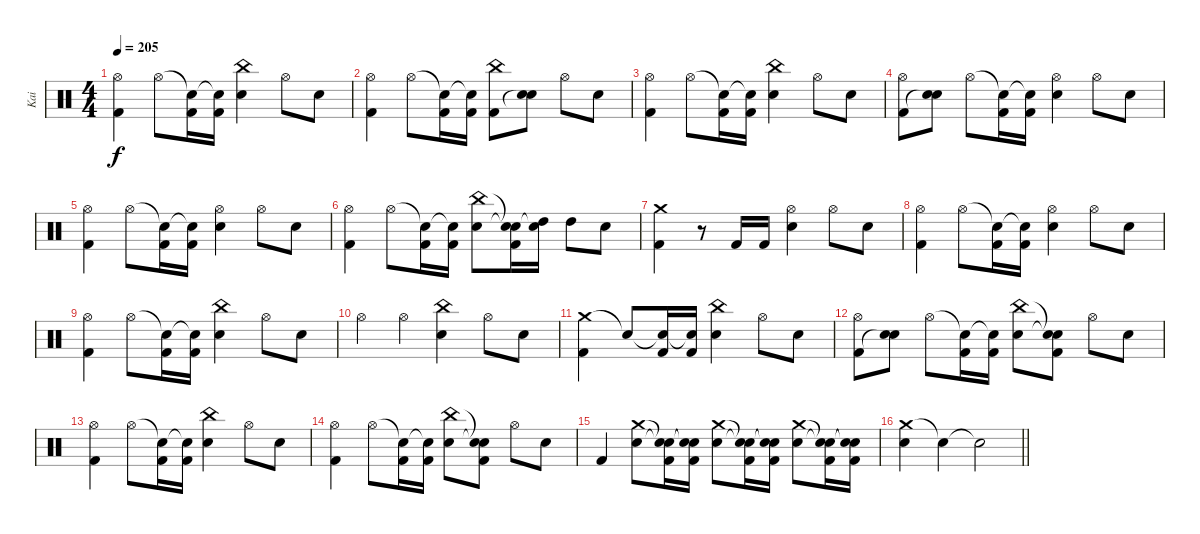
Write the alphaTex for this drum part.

\track ("Kai" "Kai") {instrument percussion}
\staff {score}
\articulation defaults
\ts (4 4)
\tempo 205
\clef neutral
\ks c
("Hi-Hat (open)" "Kick (hit) 2").4{dy f} "Hi-Hat (open)".8 ("Snare (hit)"{t} "Kick (hit) 2").16 ("Snare (hit)"{t} "Kick (hit) 2").16 ("China (hit)" "Snare (hit) 2").4 "Hi-Hat (open)".8 "Snare (hit) 2".8 |
("Hi-Hat (open)" "Kick (hit) 2").4 "Hi-Hat (open)".8 ("Snare (hit)"{t} "Kick (hit) 2").16 ("Snare (hit)"{t} "Kick (hit) 2").16 ("China (hit)" "Kick (hit) 2").8 ("Snare (hit) 2" "Snare (hit)"{t}).8 "Hi-Hat (open)".8 "Snare (hit) 2".8 |
("Hi-Hat (open)" "Kick (hit) 2").4 "Hi-Hat (open)".8 ("Snare (hit)"{t} "Kick (hit) 2").16 ("Snare (hit)"{t} "Kick (hit) 2").16 ("China (hit)" "Snare (hit) 2").4 "Hi-Hat (open)".8 "Snare (hit) 2".8 |
("Hi-Hat (open)" "Kick (hit) 2").8 ("Snare (hit) 2" "Snare (hit)"{t}).8 "Hi-Hat (open)".8 ("Snare (hit)"{t} "Kick (hit) 2").16 ("Snare (hit)"{t} "Kick (hit) 2").16 ("Hi-Hat (open)" "Snare (hit) 2").4 "Hi-Hat (open)".8 "Snare (hit) 2".8 |
("Hi-Hat (open)" "Kick (hit) 2").4 "Hi-Hat (open)".8 ("Snare (hit)"{t} "Kick (hit) 2").16 ("Snare (hit)"{t} "Kick (hit) 2").16 ("Hi-Hat (open)" "Snare (hit) 2").4 "Hi-Hat (open)".8 "Snare (hit) 2".8 |
("Hi-Hat (open)" "Kick (hit) 2").4 "Hi-Hat (open)".8 ("Snare (hit)"{t} "Kick (hit) 2").16 ("Snare (hit)"{t} "Kick (hit) 2").16 ("China (hit)" "Snare (hit) 2").8 ("Snare (hit)"{t} "Snare (hit)"{t} "Kick (hit) 2").16 ("High Tom (hit)" "Snare (hit)"{t}).16 "High Tom (hit)".8 "Snare (hit) 2".8 |
("Crash medium (hit)" "Kick (hit) 2").4 r.8 "Kick (hit) 2".16 "Kick (hit) 2".16 ("Hi-Hat (open)" "Snare (hit) 2").4 "Hi-Hat (open)".8 "Snare (hit) 2".8 |
("Hi-Hat (open)" "Kick (hit) 2").4 "Hi-Hat (open)".8 ("Snare (hit)"{t} "Kick (hit) 2").16 ("Snare (hit)"{t} "Kick (hit) 2").16 ("Hi-Hat (open)" "Snare (hit) 2").4 "Hi-Hat (open)".8 "Snare (hit) 2".8 |
("Hi-Hat (open)" "Kick (hit) 2").4 "Hi-Hat (open)".8 ("Snare (hit)"{t} "Kick (hit) 2").16 ("Snare (hit)"{t} "Kick (hit) 2").16 ("China (hit)" "Snare (hit) 2").4 "Hi-Hat (open)".8 "Snare (hit) 2".8 |
"Hi-Hat (open)".4 "Hi-Hat (open)".4 ("China (hit)" "Snare (hit) 2").4 "Hi-Hat (open)".8 "Snare (hit) 2".8 |
("Crash medium (hit)" "Kick (hit) 2").4 "Snare (hit)"{t}.8 ("Snare (hit)"{t} "Kick (hit) 2").16 ("Snare (hit)"{t} "Kick (hit) 2").16 ("China (hit)" "Snare (hit) 2").4 "Hi-Hat (open)".8 "Snare (hit) 2".8 |
("Hi-Hat (open)" "Kick (hit) 2").8 ("Snare (hit) 2" "Snare (hit)"{t}).8 "Hi-Hat (open)".8 ("Snare (hit)"{t} "Kick (hit) 2").16 ("Snare (hit)"{t} "Kick (hit) 2").16 ("China (hit)" "Snare (hit) 2").8 ("Snare (hit)"{t} "Snare (hit)"{t} "Kick (hit) 2").8 "Hi-Hat (open)".8 "Snare (hit) 2".8 |
("Hi-Hat (open)" "Kick (hit) 2").4 "Hi-Hat (open)".8 ("Snare (hit)"{t} "Kick (hit) 2").16 ("Snare (hit)"{t} "Kick (hit) 2").16 ("China (hit)" "Snare (hit) 2").4 "Hi-Hat (open)".8 "Snare (hit) 2".8 |
("Hi-Hat (open)" "Kick (hit) 2").4 "Hi-Hat (open)".8 ("Snare (hit)"{t} "Kick (hit) 2").16 ("Snare (hit)"{t} "Kick (hit) 2").16 ("China (hit)" "Snare (hit) 2").8 ("Snare (hit)"{t} "Snare (hit)"{t} "Kick (hit) 2").8 "Hi-Hat (open)".8 "Snare (hit) 2".8 |
"Kick (hit) 2".4 ("Crash medium (hit)" "Snare (hit) 2").8 ("Snare (hit)"{t} "Snare (hit)"{t} "Kick (hit) 2").16 ("Snare (hit)"{t} "Snare (hit)"{t} "Kick (hit) 2").16 ("Crash medium (hit)" "Snare (hit) 2").8 ("Snare (hit)"{t} "Snare (hit)"{t} "Kick (hit) 2").16 ("Snare (hit)"{t} "Snare (hit)"{t} "Kick (hit) 2").16 ("Crash medium (hit)" "Snare (hit) 2").8 ("Snare (hit)"{t} "Snare (hit)"{t} "Kick (hit) 2").16 ("Snare (hit)"{t} "Snare (hit)"{t} "Kick (hit) 2").16 |
\barLineRight lightlight
("Crash medium (hit)" "Snare (hit) 2").4 "Snare (hit)"{t}.4 "Snare (hit)"{t}.2
